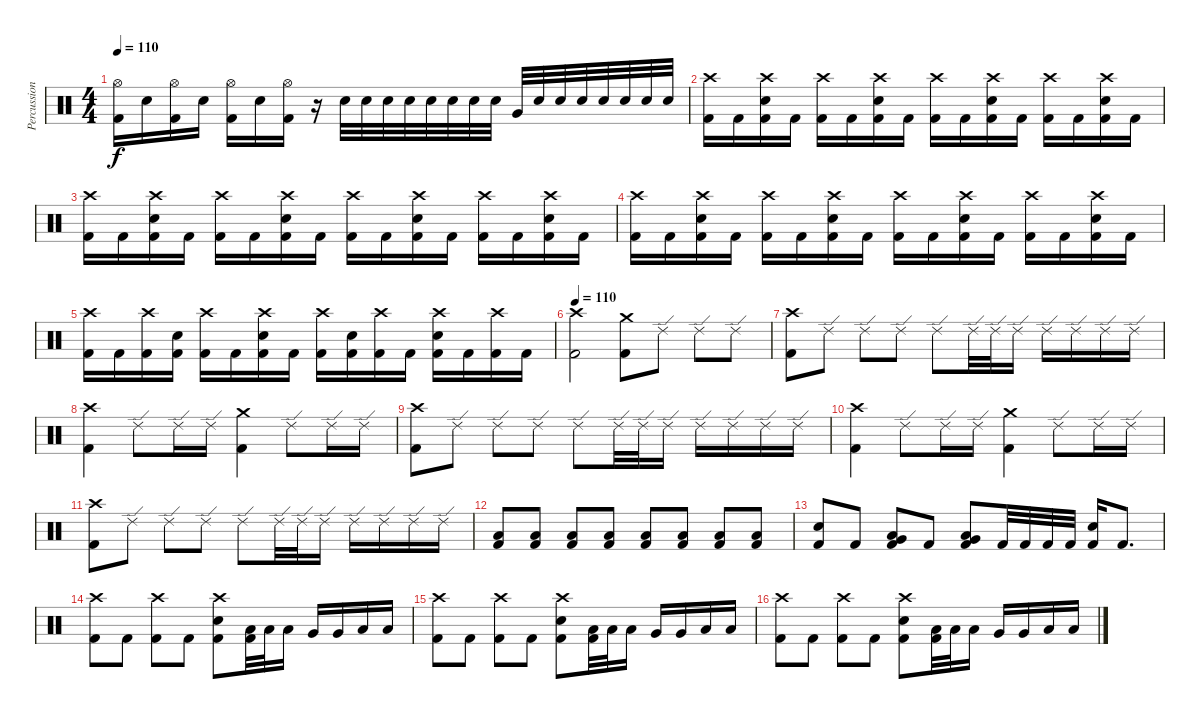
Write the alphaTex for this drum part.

\track ("Percussion" "Percussion") {instrument percussion}
\staff {score}
\articulation defaults
\ts (4 4)
\tempo 110
\clef neutral
\ks c
("Hi-Hat (open)" "Kick (hit) 2").16{dy f} "Electric Snare (hit)".16 ("Hi-Hat (open)" "Kick (hit) 2").16 "Electric Snare (hit)".16 ("Hi-Hat (open)" "Kick (hit) 2").16 "Electric Snare (hit)".16 ("Hi-Hat (open)" "Kick (hit) 2").16 r.16 "Electric Snare (hit)".32 "Electric Snare (hit)".32 "Electric Snare (hit)".32 "Electric Snare (hit)".32 "Electric Snare (hit)".32 "Electric Snare (hit)".32 "Electric Snare (hit)".32 "Electric Snare (hit)".32 "Very Low Tom (hit)".32 "Electric Snare (hit)".32 "Electric Snare (hit)".32 "Electric Snare (hit)".32 "Electric Snare (hit)".32 "Electric Snare (hit)".32 "Electric Snare (hit)".32 "Electric Snare (hit)".32 |
("Crash high (hit)" "Kick (hit) 2").16 "Kick (hit) 2".16 ("Crash high (hit)" "Electric Snare (hit)" "Kick (hit) 2").16 "Kick (hit) 2".16 ("Crash high (hit)" "Kick (hit) 2").16 "Kick (hit) 2".16 ("Crash high (hit)" "Electric Snare (hit)" "Kick (hit) 2").16 "Kick (hit) 2".16 ("Crash high (hit)" "Kick (hit) 2").16 "Kick (hit) 2".16 ("Crash high (hit)" "Electric Snare (hit)" "Kick (hit) 2").16 "Kick (hit) 2".16 ("Crash high (hit)" "Kick (hit) 2").16 "Kick (hit) 2".16 ("Crash high (hit)" "Electric Snare (hit)" "Kick (hit) 2").16 "Kick (hit) 2".16 |
("Crash high (hit)" "Kick (hit) 2").16 "Kick (hit) 2".16 ("Crash high (hit)" "Electric Snare (hit)" "Kick (hit) 2").16 "Kick (hit) 2".16 ("Crash high (hit)" "Kick (hit) 2").16 "Kick (hit) 2".16 ("Crash high (hit)" "Electric Snare (hit)" "Kick (hit) 2").16 "Kick (hit) 2".16 ("Crash high (hit)" "Kick (hit) 2").16 "Kick (hit) 2".16 ("Crash high (hit)" "Electric Snare (hit)" "Kick (hit) 2").16 "Kick (hit) 2".16 ("Crash high (hit)" "Kick (hit) 2").16 "Kick (hit) 2".16 ("Crash high (hit)" "Electric Snare (hit)" "Kick (hit) 2").16 "Kick (hit) 2".16 |
("Crash high (hit)" "Kick (hit) 2").16 "Kick (hit) 2".16 ("Crash high (hit)" "Electric Snare (hit)" "Kick (hit) 2").16 "Kick (hit) 2".16 ("Crash high (hit)" "Kick (hit) 2").16 "Kick (hit) 2".16 ("Crash high (hit)" "Electric Snare (hit)" "Kick (hit) 2").16 "Kick (hit) 2".16 ("Crash high (hit)" "Kick (hit) 2").16 "Kick (hit) 2".16 ("Crash high (hit)" "Electric Snare (hit)" "Kick (hit) 2").16 "Kick (hit) 2".16 ("Crash high (hit)" "Kick (hit) 2").16 "Kick (hit) 2".16 ("Crash high (hit)" "Electric Snare (hit)" "Kick (hit) 2").16 "Kick (hit) 2".16 |
("Crash high (hit)" "Kick (hit) 2").16 "Kick (hit) 2".16 ("Crash high (hit)" "Kick (hit) 2").16 ("Electric Snare (hit)" "Kick (hit) 2").16 ("Crash high (hit)" "Kick (hit) 2").16 "Kick (hit) 2".16 ("Crash high (hit)" "Electric Snare (hit)" "Kick (hit) 2").16 "Kick (hit) 2".16 ("Crash high (hit)" "Kick (hit) 2").16 ("Electric Snare (hit)" "Kick (hit) 2").16 ("Crash high (hit)" "Kick (hit) 2").16 "Kick (hit) 2".16 ("Crash high (hit)" "Electric Snare (hit)" "Kick (hit) 2").16 "Kick (hit) 2".16 ("Crash high (hit)" "Kick (hit) 2").16 "Kick (hit) 2".16 |
\tempo 110
("Crash high (hit)" "Kick (hit) 2").2 ("Crash medium (hit)" "Kick (hit) 2").8 "Ride (edge) 2".8 "Ride (edge) 2".8 "Ride (edge) 2".8 |
("Crash high (hit)" "Kick (hit) 2").8 "Ride (edge) 2".8 "Ride (edge) 2".8 "Ride (edge) 2".8 "Ride (edge) 2".8 "Ride (edge) 2".32 "Ride (edge) 2".32 "Ride (edge) 2".16 "Ride (edge) 2".16 "Ride (edge) 2".16 "Ride (edge) 2".16 "Ride (edge) 2".16 |
("Crash high (hit)" "Kick (hit) 2").4 "Ride (edge) 2".8 "Ride (edge) 2".16 "Ride (edge) 2".16 ("Crash medium (hit)" "Kick (hit) 2").4 "Ride (edge) 2".8 "Ride (edge) 2".16 "Ride (edge) 2".16 |
("Crash high (hit)" "Kick (hit) 2").8 "Ride (edge) 2".8 "Ride (edge) 2".8 "Ride (edge) 2".8 "Ride (edge) 2".8 "Ride (edge) 2".32 "Ride (edge) 2".32 "Ride (edge) 2".16 "Ride (edge) 2".16 "Ride (edge) 2".16 "Ride (edge) 2".16 "Ride (edge) 2".16 |
("Crash high (hit)" "Kick (hit) 2").4 "Ride (edge) 2".8 "Ride (edge) 2".16 "Ride (edge) 2".16 ("Crash medium (hit)" "Kick (hit) 2").4 "Ride (edge) 2".8 "Ride (edge) 2".16 "Ride (edge) 2".16 |
("Crash high (hit)" "Kick (hit) 2").8 "Ride (edge) 2".8 "Ride (edge) 2".8 "Ride (edge) 2".8 "Ride (edge) 2".8 "Ride (edge) 2".32 "Ride (edge) 2".32 "Ride (edge) 2".16 "Ride (edge) 2".16 "Ride (edge) 2".16 "Ride (edge) 2".16 "Ride (edge) 2".16 |
("Low Floor Tom (hit)" "Kick (hit) 2").8 ("Low Floor Tom (hit)" "Kick (hit) 2").8 ("Low Floor Tom (hit)" "Kick (hit) 2").8 ("Low Floor Tom (hit)" "Kick (hit) 2").8 ("Low Floor Tom (hit)" "Kick (hit) 2").8 ("Low Floor Tom (hit)" "Kick (hit) 2").8 ("Low Floor Tom (hit)" "Kick (hit) 2").8 ("Low Floor Tom (hit)" "Kick (hit) 2").8 |
("Electric Snare (hit)" "Kick (hit) 2").8 "Kick (hit) 2".8 ("Very Low Tom (hit)" "Low Tom (hit)" "Kick (hit) 2").8 "Kick (hit) 2".8 ("Very Low Tom (hit)" "Low Floor Tom (hit)" "Kick (hit) 2").8 "Kick (hit) 2".32 "Kick (hit) 2".32 "Kick (hit) 2".32 "Kick (hit) 2".32 ("Electric Snare (hit)" "Kick (hit) 2").16 "Kick (hit) 2".8{d} |
("Crash high (hit)" "Kick (hit) 2").8 "Kick (hit) 2".8 ("Crash high (hit)" "Kick (hit) 2").8 "Kick (hit) 2".8 ("Crash high (hit)" "Electric Snare (hit)" "Kick (hit) 2").8 ("Low Tom (hit)" "Kick (hit) 2").32 "Low Tom (hit)".32 "Low Tom (hit)".16 "Very Low Tom (hit)".16 "Very Low Tom (hit)".16 "Low Floor Tom (hit)".16 "Low Floor Tom (hit)".16 |
("Crash high (hit)" "Kick (hit) 2").8 "Kick (hit) 2".8 ("Crash high (hit)" "Kick (hit) 2").8 "Kick (hit) 2".8 ("Crash high (hit)" "Electric Snare (hit)" "Kick (hit) 2").8 ("Low Tom (hit)" "Kick (hit) 2").32 "Low Tom (hit)".32 "Low Tom (hit)".16 "Very Low Tom (hit)".16 "Very Low Tom (hit)".16 "Low Floor Tom (hit)".16 "Low Floor Tom (hit)".16 |
("Crash high (hit)" "Kick (hit) 2").8 "Kick (hit) 2".8 ("Crash high (hit)" "Kick (hit) 2").8 "Kick (hit) 2".8 ("Crash high (hit)" "Electric Snare (hit)" "Kick (hit) 2").8 ("Low Tom (hit)" "Kick (hit) 2").32 "Low Tom (hit)".32 "Low Tom (hit)".16 "Very Low Tom (hit)".16 "Very Low Tom (hit)".16 "Low Floor Tom (hit)".16 "Low Floor Tom (hit)".16
